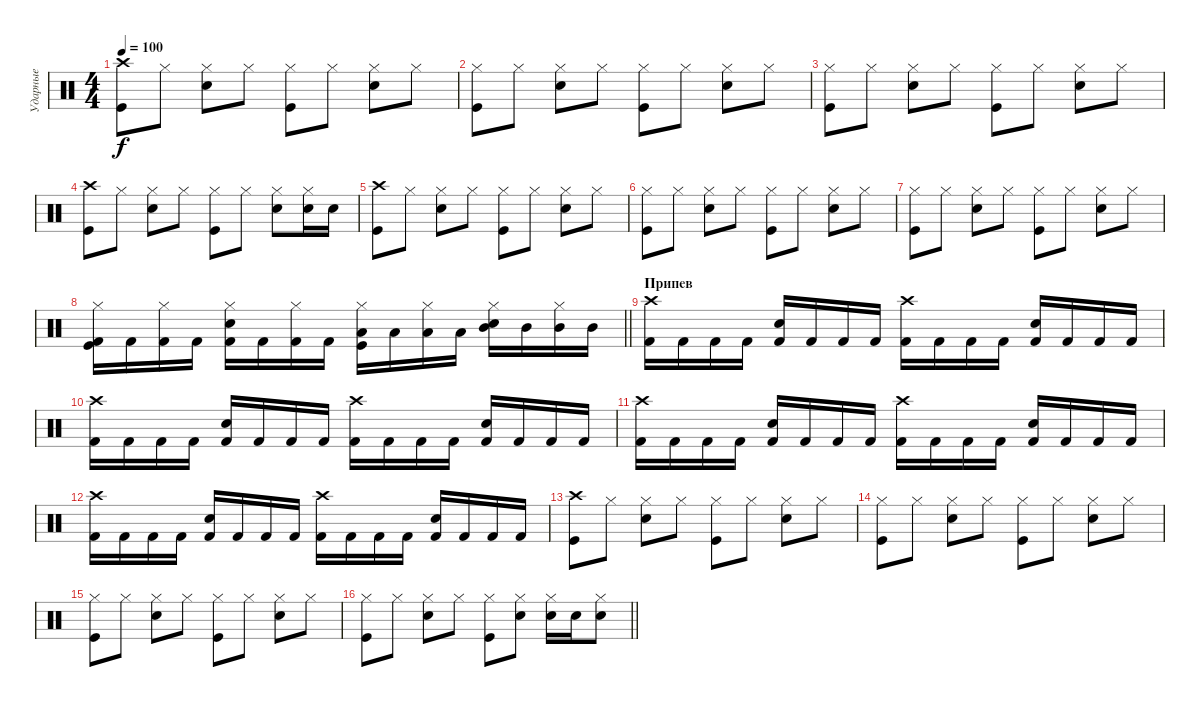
\track ("Ударные" "Ударные") {instrument percussion}
\staff {score}
\articulation defaults
\ts (4 4)
\tempo 100
\clef neutral
\ks c
("Kick (hit)" "Crash high (hit)").8{dy f} "Hi-Hat (closed)".8 ("Snare (hit) 2" "Hi-Hat (closed)").8 "Hi-Hat (closed)".8 ("Kick (hit)" "Hi-Hat (closed)").8 "Hi-Hat (closed)".8 ("Snare (hit) 2" "Hi-Hat (closed)").8 "Hi-Hat (closed)".8 |
("Kick (hit)" "Hi-Hat (closed)").8 "Hi-Hat (closed)".8 ("Snare (hit) 2" "Hi-Hat (closed)").8 "Hi-Hat (closed)".8 ("Kick (hit)" "Hi-Hat (closed)").8 "Hi-Hat (closed)".8 ("Snare (hit) 2" "Hi-Hat (closed)").8 "Hi-Hat (closed)".8 |
("Kick (hit)" "Hi-Hat (closed)").8 "Hi-Hat (closed)".8 ("Snare (hit) 2" "Hi-Hat (closed)").8 "Hi-Hat (closed)".8 ("Kick (hit)" "Hi-Hat (closed)").8 "Hi-Hat (closed)".8 ("Snare (hit) 2" "Hi-Hat (closed)").8 "Hi-Hat (closed)".8 |
("Kick (hit)" "Crash high (hit)").8 "Hi-Hat (closed)".8 ("Snare (hit) 2" "Hi-Hat (closed)").8 "Hi-Hat (closed)".8 ("Kick (hit)" "Hi-Hat (closed)").8 "Hi-Hat (closed)".8 ("Snare (hit) 2" "Hi-Hat (closed)").8 ("Snare (hit) 2" "Hi-Hat (closed)").16 "Snare (hit) 2".16 |
("Kick (hit)" "Crash high (hit)").8 "Hi-Hat (closed)".8 ("Snare (hit) 2" "Hi-Hat (closed)").8 "Hi-Hat (closed)".8 ("Kick (hit)" "Hi-Hat (closed)").8 "Hi-Hat (closed)".8 ("Snare (hit) 2" "Hi-Hat (closed)").8 "Hi-Hat (closed)".8 |
("Kick (hit)" "Hi-Hat (closed)").8 "Hi-Hat (closed)".8 ("Snare (hit) 2" "Hi-Hat (closed)").8 "Hi-Hat (closed)".8 ("Kick (hit)" "Hi-Hat (closed)").8 "Hi-Hat (closed)".8 ("Snare (hit) 2" "Hi-Hat (closed)").8 "Hi-Hat (closed)".8 |
("Kick (hit)" "Hi-Hat (closed)").8 "Hi-Hat (closed)".8 ("Snare (hit) 2" "Hi-Hat (closed)").8 "Hi-Hat (closed)".8 ("Kick (hit)" "Hi-Hat (closed)").8 "Hi-Hat (closed)".8 ("Snare (hit) 2" "Hi-Hat (closed)").8 "Hi-Hat (closed)".8 |
\barLineRight lightlight
("Kick (hit)" "Kick (hit) 2" "Hi-Hat (closed)").16 "Kick (hit) 2".16 ("Kick (hit) 2" "Hi-Hat (closed)").16 "Kick (hit) 2".16 ("Snare (hit) 2" "Kick (hit) 2" "Hi-Hat (closed)").16 "Kick (hit) 2".16 ("Kick (hit) 2" "Hi-Hat (closed)").16 "Kick (hit) 2".16 ("Kick (hit)" "Low Tom (hit)" "Hi-Hat (closed)").16 "Low Tom (hit)".16 ("Low Tom (hit)" "Hi-Hat (closed)").16 "Low Tom (hit)".16 ("Snare (hit) 2" "Mid Tom (hit)" "Hi-Hat (closed)").16 "Mid Tom (hit)".16 ("Mid Tom (hit)" "Hi-Hat (closed)").16 "Mid Tom (hit)".16 |
\section ("" "Припев")
("Kick (hit) 2" "Crash high (hit)").16 "Kick (hit) 2".16 "Kick (hit) 2".16 "Kick (hit) 2".16 ("Kick (hit) 2" "Snare (hit) 2").16 "Kick (hit) 2".16 "Kick (hit) 2".16 "Kick (hit) 2".16 ("Kick (hit) 2" "Crash high (hit)").16 "Kick (hit) 2".16 "Kick (hit) 2".16 "Kick (hit) 2".16 ("Kick (hit) 2" "Snare (hit) 2").16 "Kick (hit) 2".16 "Kick (hit) 2".16 "Kick (hit) 2".16 |
("Kick (hit) 2" "Crash high (hit)").16 "Kick (hit) 2".16 "Kick (hit) 2".16 "Kick (hit) 2".16 ("Kick (hit) 2" "Snare (hit) 2").16 "Kick (hit) 2".16 "Kick (hit) 2".16 "Kick (hit) 2".16 ("Kick (hit) 2" "Crash high (hit)").16 "Kick (hit) 2".16 "Kick (hit) 2".16 "Kick (hit) 2".16 ("Kick (hit) 2" "Snare (hit) 2").16 "Kick (hit) 2".16 "Kick (hit) 2".16 "Kick (hit) 2".16 |
("Kick (hit) 2" "Crash high (hit)").16 "Kick (hit) 2".16 "Kick (hit) 2".16 "Kick (hit) 2".16 ("Kick (hit) 2" "Snare (hit) 2").16 "Kick (hit) 2".16 "Kick (hit) 2".16 "Kick (hit) 2".16 ("Kick (hit) 2" "Crash high (hit)").16 "Kick (hit) 2".16 "Kick (hit) 2".16 "Kick (hit) 2".16 ("Kick (hit) 2" "Snare (hit) 2").16 "Kick (hit) 2".16 "Kick (hit) 2".16 "Kick (hit) 2".16 |
("Kick (hit) 2" "Crash high (hit)").16 "Kick (hit) 2".16 "Kick (hit) 2".16 "Kick (hit) 2".16 ("Kick (hit) 2" "Snare (hit) 2").16 "Kick (hit) 2".16 "Kick (hit) 2".16 "Kick (hit) 2".16 ("Kick (hit) 2" "Crash high (hit)").16 "Kick (hit) 2".16 "Kick (hit) 2".16 "Kick (hit) 2".16 ("Kick (hit) 2" "Snare (hit) 2").16 "Kick (hit) 2".16 "Kick (hit) 2".16 "Kick (hit) 2".16 |
("Kick (hit)" "Crash high (hit)").8 "Hi-Hat (closed)".8 ("Snare (hit) 2" "Hi-Hat (closed)").8 "Hi-Hat (closed)".8 ("Kick (hit)" "Hi-Hat (closed)").8 "Hi-Hat (closed)".8 ("Snare (hit) 2" "Hi-Hat (closed)").8 "Hi-Hat (closed)".8 |
("Kick (hit)" "Hi-Hat (closed)").8 "Hi-Hat (closed)".8 ("Snare (hit) 2" "Hi-Hat (closed)").8 "Hi-Hat (closed)".8 ("Kick (hit)" "Hi-Hat (closed)").8 "Hi-Hat (closed)".8 ("Snare (hit) 2" "Hi-Hat (closed)").8 "Hi-Hat (closed)".8 |
("Kick (hit)" "Hi-Hat (closed)").8 "Hi-Hat (closed)".8 ("Snare (hit) 2" "Hi-Hat (closed)").8 "Hi-Hat (closed)".8 ("Kick (hit)" "Hi-Hat (closed)").8 "Hi-Hat (closed)".8 ("Snare (hit) 2" "Hi-Hat (closed)").8 "Hi-Hat (closed)".8 |
\barLineRight lightlight
("Kick (hit)" "Hi-Hat (closed)").8 "Hi-Hat (closed)".8 ("Snare (hit) 2" "Hi-Hat (closed)").8 "Hi-Hat (closed)".8 ("Kick (hit)" "Hi-Hat (closed)").8 ("Snare (hit) 2" "Hi-Hat (closed)").8 ("Snare (hit) 2" "Hi-Hat (closed)").16 "Snare (hit) 2".16 ("Snare (hit) 2" "Hi-Hat (closed)").8
